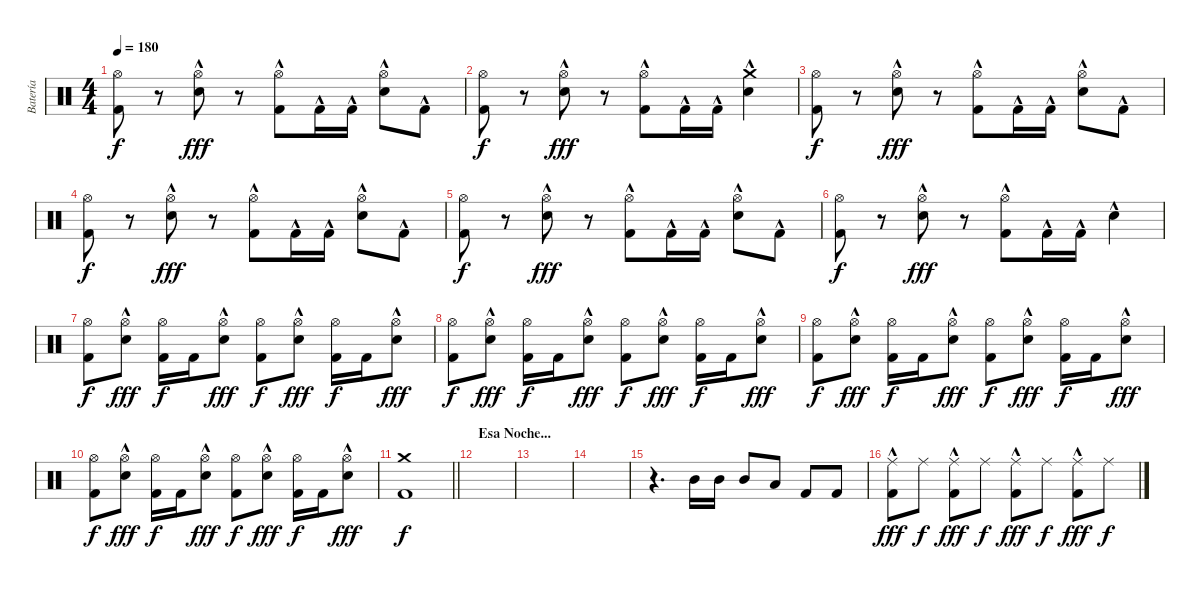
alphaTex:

\track ("Batería" "Batería") {instrument percussion}
\staff {score}
\articulation defaults
\ts (4 4)
\tempo 180
\clef neutral
\ks c
("Hi-Hat (open)" "Kick (hit) 2").8{dy f} r.8 ("Snare (hit) 2"{hac} "Hi-Hat (open)").8{dy fff} r.8 ("Hi-Hat (open)" "Kick (hit) 2"{hac}).8 "Kick (hit) 2"{hac}.16 "Kick (hit) 2"{hac}.16 ("Snare (hit) 2"{hac} "Hi-Hat (open)").8 "Kick (hit) 2"{hac}.8 |
("Hi-Hat (open)" "Kick (hit) 2").8{dy f} r.8 ("Snare (hit) 2"{hac} "Hi-Hat (open)").8{dy fff} r.8 ("Hi-Hat (open)" "Kick (hit) 2"{hac}).8 "Kick (hit) 2"{hac}.16 "Kick (hit) 2"{hac}.16 ("Crash medium (hit)"{hac} "Snare (hit) 2"{hac}).4 |
("Hi-Hat (open)" "Kick (hit) 2").8{dy f} r.8 ("Snare (hit) 2"{hac} "Hi-Hat (open)").8{dy fff} r.8 ("Hi-Hat (open)" "Kick (hit) 2"{hac}).8 "Kick (hit) 2"{hac}.16 "Kick (hit) 2"{hac}.16 ("Snare (hit) 2"{hac} "Hi-Hat (open)").8 "Kick (hit) 2"{hac}.8 |
("Hi-Hat (open)" "Kick (hit) 2").8{dy f} r.8 ("Snare (hit) 2"{hac} "Hi-Hat (open)").8{dy fff} r.8 ("Hi-Hat (open)" "Kick (hit) 2"{hac}).8 "Kick (hit) 2"{hac}.16 "Kick (hit) 2"{hac}.16 ("Snare (hit) 2"{hac} "Hi-Hat (open)").8 "Kick (hit) 2"{hac}.8 |
("Hi-Hat (open)" "Kick (hit) 2").8{dy f} r.8 ("Snare (hit) 2"{hac} "Hi-Hat (open)").8{dy fff} r.8 ("Hi-Hat (open)" "Kick (hit) 2"{hac}).8 "Kick (hit) 2"{hac}.16 "Kick (hit) 2"{hac}.16 ("Snare (hit) 2"{hac} "Hi-Hat (open)").8 "Kick (hit) 2"{hac}.8 |
("Hi-Hat (open)" "Kick (hit) 2").8{dy f} r.8 ("Snare (hit) 2"{hac} "Hi-Hat (open)").8{dy fff} r.8 ("Hi-Hat (open)" "Kick (hit) 2"{hac}).8 "Kick (hit) 2"{hac}.16 "Kick (hit) 2"{hac}.16 "Snare (hit) 2"{hac}.4 |
("Hi-Hat (open)" "Kick (hit) 2").8{dy f} ("Snare (hit) 2"{hac} "Hi-Hat (open)").8{dy fff} ("Hi-Hat (open)" "Kick (hit) 2").16{dy f} "Kick (hit) 2".16 ("Snare (hit) 2"{hac} "Hi-Hat (open)").8{dy fff} ("Hi-Hat (open)" "Kick (hit) 2").8{dy f} ("Snare (hit) 2"{hac} "Hi-Hat (open)").8{dy fff} ("Hi-Hat (open)" "Kick (hit) 2").16{dy f} "Kick (hit) 2".16 ("Snare (hit) 2"{hac} "Hi-Hat (open)").8{dy fff} |
("Hi-Hat (open)" "Kick (hit) 2").8{dy f} ("Snare (hit) 2"{hac} "Hi-Hat (open)").8{dy fff} ("Hi-Hat (open)" "Kick (hit) 2").16{dy f} "Kick (hit) 2".16 ("Snare (hit) 2"{hac} "Hi-Hat (open)").8{dy fff} ("Hi-Hat (open)" "Kick (hit) 2").8{dy f} ("Snare (hit) 2"{hac} "Hi-Hat (open)").8{dy fff} ("Hi-Hat (open)" "Kick (hit) 2").16{dy f} "Kick (hit) 2".16 ("Snare (hit) 2"{hac} "Hi-Hat (open)").8{dy fff} |
("Hi-Hat (open)" "Kick (hit) 2").8{dy f} ("Snare (hit) 2"{hac} "Hi-Hat (open)").8{dy fff} ("Hi-Hat (open)" "Kick (hit) 2").16{dy f} "Kick (hit) 2".16 ("Snare (hit) 2"{hac} "Hi-Hat (open)").8{dy fff} ("Hi-Hat (open)" "Kick (hit) 2").8{dy f} ("Snare (hit) 2"{hac} "Hi-Hat (open)").8{dy fff} ("Hi-Hat (open)" "Kick (hit) 2").16{dy f} "Kick (hit) 2".16 ("Snare (hit) 2"{hac} "Hi-Hat (open)").8{dy fff} |
("Hi-Hat (open)" "Kick (hit) 2").8{dy f} ("Snare (hit) 2"{hac} "Hi-Hat (open)").8{dy fff} ("Hi-Hat (open)" "Kick (hit) 2").16{dy f} "Kick (hit) 2".16 ("Snare (hit) 2"{hac} "Hi-Hat (open)").8{dy fff} ("Hi-Hat (open)" "Kick (hit) 2").8{dy f} ("Snare (hit) 2"{hac} "Hi-Hat (open)").8{dy fff} ("Hi-Hat (open)" "Kick (hit) 2").16{dy f} "Kick (hit) 2".16 ("Snare (hit) 2"{hac} "Hi-Hat (open)").8{dy fff} |
\barLineRight lightlight
("Crash medium (hit)" "Kick (hit) 2").1{dy f} |
\section ("" "Esa Noche...")
|
|
|
r.4{d} "Mid Tom (hit)".16 "Mid Tom (hit)".16 "Mid Tom (hit)".8 "Low Tom (hit)".8 "Kick (hit) 2".8 "Kick (hit) 2".8 |
("Ride (middle)" "Kick (hit) 2"{hac}).8{dy fff} "Ride (middle)".8{dy f} ("Ride (middle)" "Kick (hit) 2"{hac}).8{dy fff} "Ride (middle)".8{dy f} ("Ride (middle)" "Kick (hit) 2"{hac}).8{dy fff} "Ride (middle)".8{dy f} ("Ride (middle)" "Kick (hit) 2"{hac}).8{dy fff} "Ride (middle)".8{dy f}
